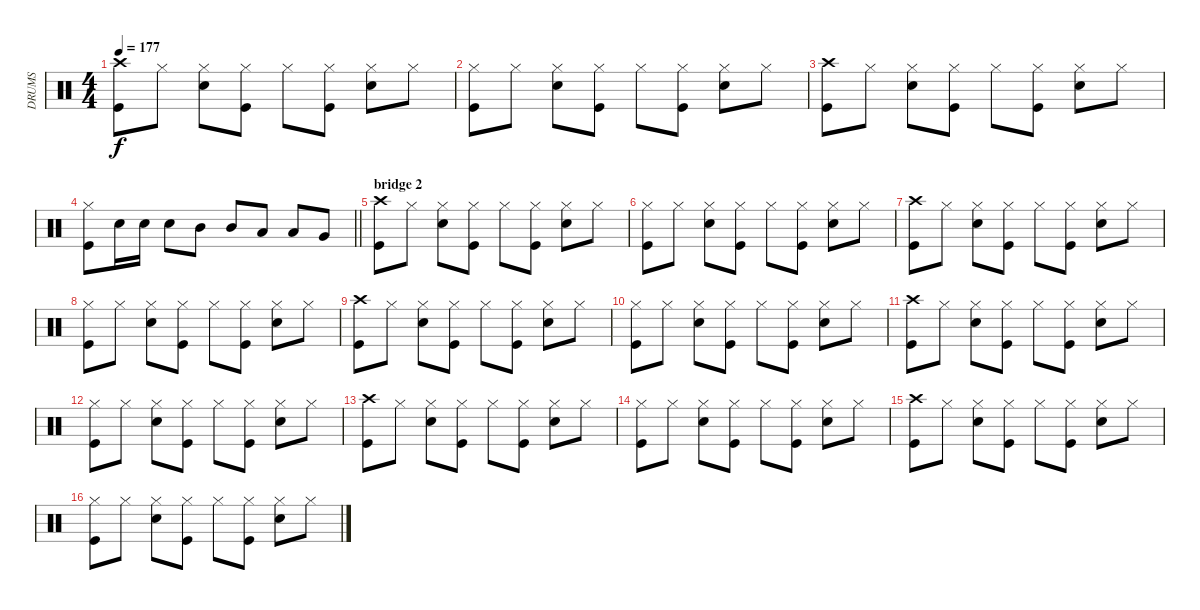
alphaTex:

\track ("DRUMS" "DRUMS") {instrument percussion}
\staff {score}
\articulation defaults
\ts (4 4)
\tempo 177
\clef neutral
\ks c
("Crash high (hit)" "Kick (hit)").8{dy f} "Hi-Hat (closed)".8 ("Hi-Hat (closed)" "Snare (hit) 2").8 ("Hi-Hat (closed)" "Kick (hit)").8 "Hi-Hat (closed)".8 ("Hi-Hat (closed)" "Kick (hit)").8 ("Hi-Hat (closed)" "Snare (hit) 2").8 "Hi-Hat (closed)".8 |
("Hi-Hat (closed)" "Kick (hit)").8 "Hi-Hat (closed)".8 ("Hi-Hat (closed)" "Snare (hit) 2").8 ("Hi-Hat (closed)" "Kick (hit)").8 "Hi-Hat (closed)".8 ("Hi-Hat (closed)" "Kick (hit)").8 ("Hi-Hat (closed)" "Snare (hit) 2").8 "Hi-Hat (closed)".8 |
("Crash high (hit)" "Kick (hit)").8 "Hi-Hat (closed)".8 ("Hi-Hat (closed)" "Snare (hit) 2").8 ("Hi-Hat (closed)" "Kick (hit)").8 "Hi-Hat (closed)".8 ("Hi-Hat (closed)" "Kick (hit)").8 ("Hi-Hat (closed)" "Snare (hit) 2").8 "Hi-Hat (closed)".8 |
\barLineRight lightlight
("Hi-Hat (closed)" "Kick (hit)").8 "Snare (hit) 2".16 "Snare (hit) 2".16 "Snare (hit) 2".8 "Mid Tom (hit)".8 "Mid Tom (hit)".8 "Low Tom (hit)".8 "Low Tom (hit)".8 "Very Low Tom (hit)".8 |
\section ("" "bridge 2")
("Crash high (hit)" "Kick (hit)").8 "Hi-Hat (closed)".8 ("Hi-Hat (closed)" "Snare (hit) 2").8 ("Hi-Hat (closed)" "Kick (hit)").8 "Hi-Hat (closed)".8 ("Hi-Hat (closed)" "Kick (hit)").8 ("Hi-Hat (closed)" "Snare (hit) 2").8 "Hi-Hat (closed)".8 |
("Hi-Hat (closed)" "Kick (hit)").8 "Hi-Hat (closed)".8 ("Hi-Hat (closed)" "Snare (hit) 2").8 ("Hi-Hat (closed)" "Kick (hit)").8 "Hi-Hat (closed)".8 ("Hi-Hat (closed)" "Kick (hit)").8 ("Hi-Hat (closed)" "Snare (hit) 2").8 "Hi-Hat (closed)".8 |
("Crash high (hit)" "Kick (hit)").8 "Hi-Hat (closed)".8 ("Hi-Hat (closed)" "Snare (hit) 2").8 ("Hi-Hat (closed)" "Kick (hit)").8 "Hi-Hat (closed)".8 ("Hi-Hat (closed)" "Kick (hit)").8 ("Hi-Hat (closed)" "Snare (hit) 2").8 "Hi-Hat (closed)".8 |
("Hi-Hat (closed)" "Kick (hit)").8 "Hi-Hat (closed)".8 ("Hi-Hat (closed)" "Snare (hit) 2").8 ("Hi-Hat (closed)" "Kick (hit)").8 "Hi-Hat (closed)".8 ("Hi-Hat (closed)" "Kick (hit)").8 ("Hi-Hat (closed)" "Snare (hit) 2").8 "Hi-Hat (closed)".8 |
("Crash high (hit)" "Kick (hit)").8 "Hi-Hat (closed)".8 ("Hi-Hat (closed)" "Snare (hit) 2").8 ("Hi-Hat (closed)" "Kick (hit)").8 "Hi-Hat (closed)".8 ("Hi-Hat (closed)" "Kick (hit)").8 ("Hi-Hat (closed)" "Snare (hit) 2").8 "Hi-Hat (closed)".8 |
("Hi-Hat (closed)" "Kick (hit)").8 "Hi-Hat (closed)".8 ("Hi-Hat (closed)" "Snare (hit) 2").8 ("Hi-Hat (closed)" "Kick (hit)").8 "Hi-Hat (closed)".8 ("Hi-Hat (closed)" "Kick (hit)").8 ("Hi-Hat (closed)" "Snare (hit) 2").8 "Hi-Hat (closed)".8 |
("Crash high (hit)" "Kick (hit)").8 "Hi-Hat (closed)".8 ("Hi-Hat (closed)" "Snare (hit) 2").8 ("Hi-Hat (closed)" "Kick (hit)").8 "Hi-Hat (closed)".8 ("Hi-Hat (closed)" "Kick (hit)").8 ("Hi-Hat (closed)" "Snare (hit) 2").8 "Hi-Hat (closed)".8 |
("Hi-Hat (closed)" "Kick (hit)").8 "Hi-Hat (closed)".8 ("Hi-Hat (closed)" "Snare (hit) 2").8 ("Hi-Hat (closed)" "Kick (hit)").8 "Hi-Hat (closed)".8 ("Hi-Hat (closed)" "Kick (hit)").8 ("Hi-Hat (closed)" "Snare (hit) 2").8 "Hi-Hat (closed)".8 |
("Crash high (hit)" "Kick (hit)").8 "Hi-Hat (closed)".8 ("Hi-Hat (closed)" "Snare (hit) 2").8 ("Hi-Hat (closed)" "Kick (hit)").8 "Hi-Hat (closed)".8 ("Hi-Hat (closed)" "Kick (hit)").8 ("Hi-Hat (closed)" "Snare (hit) 2").8 "Hi-Hat (closed)".8 |
("Hi-Hat (closed)" "Kick (hit)").8 "Hi-Hat (closed)".8 ("Hi-Hat (closed)" "Snare (hit) 2").8 ("Hi-Hat (closed)" "Kick (hit)").8 "Hi-Hat (closed)".8 ("Hi-Hat (closed)" "Kick (hit)").8 ("Hi-Hat (closed)" "Snare (hit) 2").8 "Hi-Hat (closed)".8 |
("Crash high (hit)" "Kick (hit)").8 "Hi-Hat (closed)".8 ("Hi-Hat (closed)" "Snare (hit) 2").8 ("Hi-Hat (closed)" "Kick (hit)").8 "Hi-Hat (closed)".8 ("Hi-Hat (closed)" "Kick (hit)").8 ("Hi-Hat (closed)" "Snare (hit) 2").8 "Hi-Hat (closed)".8 |
("Hi-Hat (closed)" "Kick (hit)").8 "Hi-Hat (closed)".8 ("Hi-Hat (closed)" "Snare (hit) 2").8 ("Hi-Hat (closed)" "Kick (hit)").8 "Hi-Hat (closed)".8 ("Hi-Hat (closed)" "Kick (hit)").8 ("Hi-Hat (closed)" "Snare (hit) 2").8 "Hi-Hat (closed)".8
